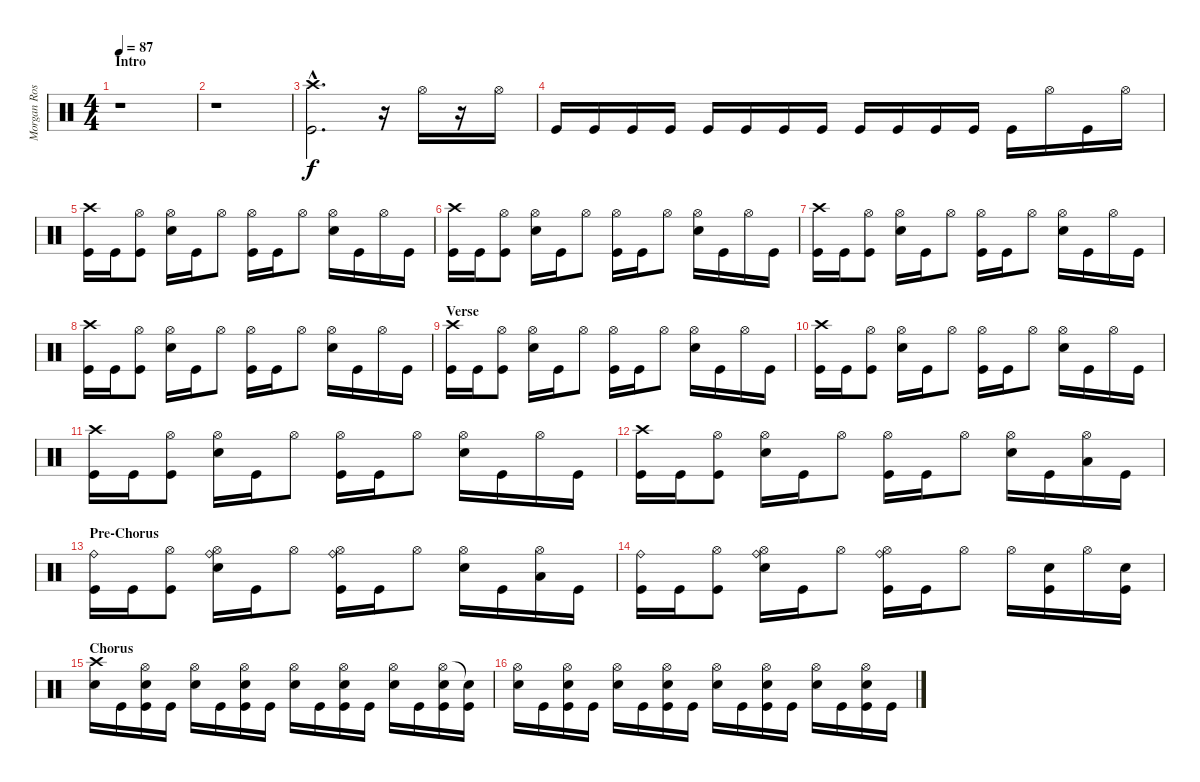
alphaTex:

\track ("Morgan Rose" "Morgan Ros") {instrument percussion}
\staff {score}
\articulation defaults
\ts (4 4)
\section ("" "Intro")
\tempo 87
\clef neutral
\ks c
r.1{dy f} |
r.1 |
("Crash high (hit)"{hac} "Kick (hit)"{hac}).2{d} r.16 "Hi-Hat (open)".16 r.16 "Hi-Hat (open)".16 |
"Kick (hit)".16 "Kick (hit)".16 "Kick (hit)".16 "Kick (hit)".16 "Kick (hit)".16 "Kick (hit)".16 "Kick (hit)".16 "Kick (hit)".16 "Kick (hit)".16 "Kick (hit)".16 "Kick (hit)".16 "Kick (hit)".16 "Kick (hit)".16 "Hi-Hat (open)".16 "Kick (hit)".16 "Hi-Hat (open)".16 |
("Crash high (hit)" "Kick (hit)").16 "Kick (hit)".16 ("Hi-Hat (open)" "Kick (hit)").8 ("Hi-Hat (open)" "Snare (hit) 2").16 "Kick (hit)".16 "Hi-Hat (open)".8 ("Hi-Hat (open)" "Kick (hit)").16 "Kick (hit)".16 "Hi-Hat (open)".8 ("Hi-Hat (open)" "Snare (hit) 2").16 "Kick (hit)".16 "Hi-Hat (open)".16 "Kick (hit)".16 |
("Crash high (hit)" "Kick (hit)").16 "Kick (hit)".16 ("Hi-Hat (open)" "Kick (hit)").8 ("Hi-Hat (open)" "Snare (hit) 2").16 "Kick (hit)".16 "Hi-Hat (open)".8 ("Hi-Hat (open)" "Kick (hit)").16 "Kick (hit)".16 "Hi-Hat (open)".8 ("Hi-Hat (open)" "Snare (hit) 2").16 "Kick (hit)".16 "Hi-Hat (open)".16 "Kick (hit)".16 |
("Crash high (hit)" "Kick (hit)").16 "Kick (hit)".16 ("Hi-Hat (open)" "Kick (hit)").8 ("Hi-Hat (open)" "Snare (hit) 2").16 "Kick (hit)".16 "Hi-Hat (open)".8 ("Hi-Hat (open)" "Kick (hit)").16 "Kick (hit)".16 "Hi-Hat (open)".8 ("Hi-Hat (open)" "Snare (hit) 2").16 "Kick (hit)".16 "Hi-Hat (open)".16 "Kick (hit)".16 |
("Crash high (hit)" "Kick (hit)").16 "Kick (hit)".16 ("Hi-Hat (open)" "Kick (hit)").8 ("Hi-Hat (open)" "Snare (hit) 2").16 "Kick (hit)".16 "Hi-Hat (open)".8 ("Hi-Hat (open)" "Kick (hit)").16 "Kick (hit)".16 "Hi-Hat (open)".8 ("Hi-Hat (open)" "Snare (hit) 2").16 "Kick (hit)".16 "Hi-Hat (open)".16 "Kick (hit)".16 |
\section ("" "Verse")
("Crash high (hit)" "Kick (hit)").16 "Kick (hit)".16 ("Hi-Hat (open)" "Kick (hit)").8 ("Hi-Hat (open)" "Snare (hit) 2").16 "Kick (hit)".16 "Hi-Hat (open)".8 ("Hi-Hat (open)" "Kick (hit)").16 "Kick (hit)".16 "Hi-Hat (open)".8 ("Hi-Hat (open)" "Snare (hit) 2").16 "Kick (hit)".16 "Hi-Hat (open)".16 "Kick (hit)".16 |
("Crash high (hit)" "Kick (hit)").16 "Kick (hit)".16 ("Hi-Hat (open)" "Kick (hit)").8 ("Hi-Hat (open)" "Snare (hit) 2").16 "Kick (hit)".16 "Hi-Hat (open)".8 ("Hi-Hat (open)" "Kick (hit)").16 "Kick (hit)".16 "Hi-Hat (open)".8 ("Hi-Hat (open)" "Snare (hit) 2").16 "Kick (hit)".16 "Hi-Hat (open)".16 "Kick (hit)".16 |
("Crash high (hit)" "Kick (hit)").16 "Kick (hit)".16 ("Hi-Hat (open)" "Kick (hit)").8 ("Hi-Hat (open)" "Snare (hit) 2").16 "Kick (hit)".16 "Hi-Hat (open)".8 ("Hi-Hat (open)" "Kick (hit)").16 "Kick (hit)".16 "Hi-Hat (open)".8 ("Hi-Hat (open)" "Snare (hit) 2").16 "Kick (hit)".16 "Hi-Hat (open)".16 "Kick (hit)".16 |
("Crash high (hit)" "Kick (hit)").16 "Kick (hit)".16 ("Hi-Hat (open)" "Kick (hit)").8 ("Hi-Hat (open)" "Snare (hit) 2").16 "Kick (hit)".16 "Hi-Hat (open)".8 ("Hi-Hat (open)" "Kick (hit)").16 "Kick (hit)".16 "Hi-Hat (open)".8 ("Hi-Hat (open)" "Snare (hit) 2").16 "Kick (hit)".16 ("Hi-Hat (open)" "Low Tom (hit)").16 "Kick (hit)".16 |
\section ("" "Pre-Chorus")
("Ride (bell)" "Kick (hit)").16 "Kick (hit)".16 ("Hi-Hat (open)" "Kick (hit)").8 ("Ride (bell)" "Hi-Hat (open)" "Snare (hit) 2").16 "Kick (hit)".16 "Hi-Hat (open)".8 ("Ride (bell)" "Hi-Hat (open)" "Kick (hit)").16 "Kick (hit)".16 "Hi-Hat (open)".8 ("Hi-Hat (open)" "Snare (hit) 2").16 "Kick (hit)".16 ("Hi-Hat (open)" "Low Tom (hit)").16 "Kick (hit)".16 |
("Ride (bell)" "Kick (hit)").16 "Kick (hit)".16 ("Hi-Hat (open)" "Kick (hit)").8 ("Ride (bell)" "Hi-Hat (open)" "Snare (hit) 2").16 "Kick (hit)".16 "Hi-Hat (open)".8 ("Ride (bell)" "Hi-Hat (open)" "Kick (hit)").16 "Kick (hit)".16 "Hi-Hat (open)".8 "Hi-Hat (open)".16 ("Snare (hit) 2" "Kick (hit)").16 "Hi-Hat (open)".16 ("Snare (hit) 2" "Kick (hit)").16 |
\section ("" "Chorus")
("Crash high (hit)" "Snare (hit) 2").16 "Kick (hit)".16 ("Hi-Hat (open)" "Snare (hit) 2" "Kick (hit)").16 "Kick (hit)".16 ("Hi-Hat (open)" "Snare (hit) 2").16 "Kick (hit)".16 ("Hi-Hat (open)" "Snare (hit) 2" "Kick (hit)").16 "Kick (hit)".16 ("Hi-Hat (open)" "Snare (hit) 2").16 "Kick (hit)".16 ("Hi-Hat (open)" "Snare (hit) 2" "Kick (hit)").16 "Kick (hit)".16 ("Hi-Hat (open)" "Snare (hit) 2").16 "Kick (hit)".16 ("Hi-Hat (open)" "Snare (hit) 2" "Kick (hit)").16 ("Snare (hit)"{t} "Kick (hit)").16 |
("Hi-Hat (open)" "Snare (hit) 2").16 "Kick (hit)".16 ("Hi-Hat (open)" "Snare (hit) 2" "Kick (hit)").16 "Kick (hit)".16 ("Hi-Hat (open)" "Snare (hit) 2").16 "Kick (hit)".16 ("Hi-Hat (open)" "Snare (hit) 2" "Kick (hit)").16 "Kick (hit)".16 ("Hi-Hat (open)" "Snare (hit) 2").16 "Kick (hit)".16 ("Hi-Hat (open)" "Snare (hit) 2" "Kick (hit)").16 "Kick (hit)".16 ("Hi-Hat (open)" "Snare (hit) 2").16 "Kick (hit)".16 ("Hi-Hat (open)" "Snare (hit) 2" "Kick (hit)").16 "Kick (hit)".16
